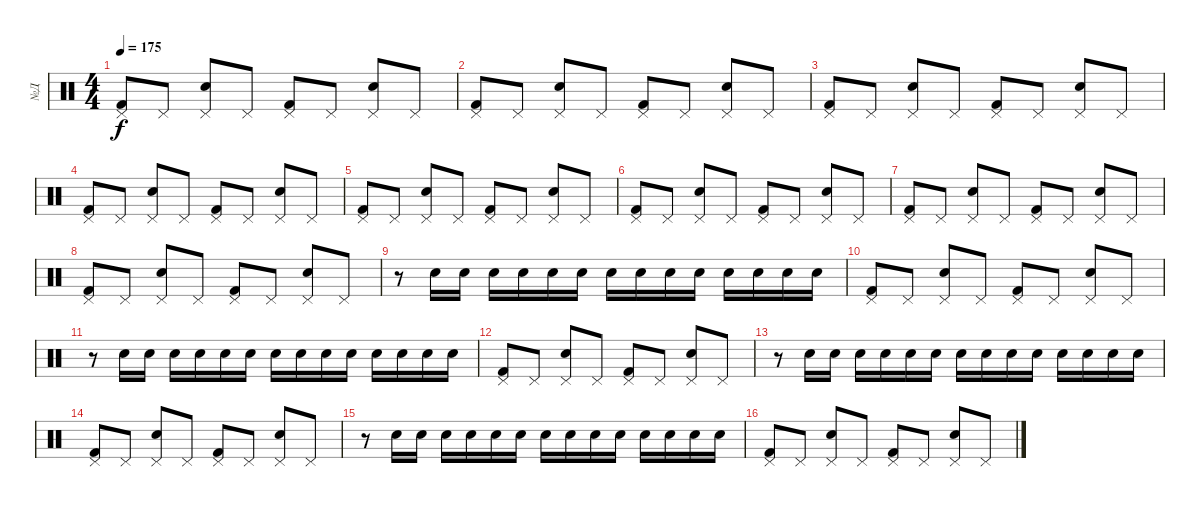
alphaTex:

\track ("№Д" "№Д") {instrument percussion}
\staff {score}
\articulation defaults
\ts (4 4)
\tempo 175
\clef neutral
\ks c
("Pedal Hi-Hat (hit)" "Kick (hit) 2").8{dy f} "Pedal Hi-Hat (hit)".8 ("Pedal Hi-Hat (hit)" "Electric Snare (hit)").8 "Pedal Hi-Hat (hit)".8 ("Pedal Hi-Hat (hit)" "Kick (hit) 2").8 "Pedal Hi-Hat (hit)".8 ("Pedal Hi-Hat (hit)" "Electric Snare (hit)").8 "Pedal Hi-Hat (hit)".8 |
("Pedal Hi-Hat (hit)" "Kick (hit) 2").8 "Pedal Hi-Hat (hit)".8 ("Pedal Hi-Hat (hit)" "Electric Snare (hit)").8 "Pedal Hi-Hat (hit)".8 ("Pedal Hi-Hat (hit)" "Kick (hit) 2").8 "Pedal Hi-Hat (hit)".8 ("Pedal Hi-Hat (hit)" "Electric Snare (hit)").8 "Pedal Hi-Hat (hit)".8 |
("Pedal Hi-Hat (hit)" "Kick (hit) 2").8 "Pedal Hi-Hat (hit)".8 ("Pedal Hi-Hat (hit)" "Electric Snare (hit)").8 "Pedal Hi-Hat (hit)".8 ("Pedal Hi-Hat (hit)" "Kick (hit) 2").8 "Pedal Hi-Hat (hit)".8 ("Pedal Hi-Hat (hit)" "Electric Snare (hit)").8 "Pedal Hi-Hat (hit)".8 |
("Pedal Hi-Hat (hit)" "Kick (hit) 2").8 "Pedal Hi-Hat (hit)".8 ("Pedal Hi-Hat (hit)" "Electric Snare (hit)").8 "Pedal Hi-Hat (hit)".8 ("Pedal Hi-Hat (hit)" "Kick (hit) 2").8 "Pedal Hi-Hat (hit)".8 ("Pedal Hi-Hat (hit)" "Electric Snare (hit)").8 "Pedal Hi-Hat (hit)".8 |
("Pedal Hi-Hat (hit)" "Kick (hit) 2").8 "Pedal Hi-Hat (hit)".8 ("Pedal Hi-Hat (hit)" "Electric Snare (hit)").8 "Pedal Hi-Hat (hit)".8 ("Pedal Hi-Hat (hit)" "Kick (hit) 2").8 "Pedal Hi-Hat (hit)".8 ("Pedal Hi-Hat (hit)" "Electric Snare (hit)").8 "Pedal Hi-Hat (hit)".8 |
("Pedal Hi-Hat (hit)" "Kick (hit) 2").8 "Pedal Hi-Hat (hit)".8 ("Pedal Hi-Hat (hit)" "Electric Snare (hit)").8 "Pedal Hi-Hat (hit)".8 ("Pedal Hi-Hat (hit)" "Kick (hit) 2").8 "Pedal Hi-Hat (hit)".8 ("Pedal Hi-Hat (hit)" "Electric Snare (hit)").8 "Pedal Hi-Hat (hit)".8 |
("Pedal Hi-Hat (hit)" "Kick (hit) 2").8 "Pedal Hi-Hat (hit)".8 ("Pedal Hi-Hat (hit)" "Electric Snare (hit)").8 "Pedal Hi-Hat (hit)".8 ("Pedal Hi-Hat (hit)" "Kick (hit) 2").8 "Pedal Hi-Hat (hit)".8 ("Pedal Hi-Hat (hit)" "Electric Snare (hit)").8 "Pedal Hi-Hat (hit)".8 |
("Pedal Hi-Hat (hit)" "Kick (hit) 2").8 "Pedal Hi-Hat (hit)".8 ("Pedal Hi-Hat (hit)" "Electric Snare (hit)").8 "Pedal Hi-Hat (hit)".8 ("Pedal Hi-Hat (hit)" "Kick (hit) 2").8 "Pedal Hi-Hat (hit)".8 ("Pedal Hi-Hat (hit)" "Electric Snare (hit)").8 "Pedal Hi-Hat (hit)".8 |
r.8 "Electric Snare (hit)".16 "Electric Snare (hit)".16 "Electric Snare (hit)".16 "Electric Snare (hit)".16 "Electric Snare (hit)".16 "Electric Snare (hit)".16 "Electric Snare (hit)".16 "Electric Snare (hit)".16 "Electric Snare (hit)".16 "Electric Snare (hit)".16 "Electric Snare (hit)".16 "Electric Snare (hit)".16 "Electric Snare (hit)".16 "Electric Snare (hit)".16 |
("Pedal Hi-Hat (hit)" "Kick (hit) 2").8 "Pedal Hi-Hat (hit)".8 ("Pedal Hi-Hat (hit)" "Electric Snare (hit)").8 "Pedal Hi-Hat (hit)".8 ("Pedal Hi-Hat (hit)" "Kick (hit) 2").8 "Pedal Hi-Hat (hit)".8 ("Pedal Hi-Hat (hit)" "Electric Snare (hit)").8 "Pedal Hi-Hat (hit)".8 |
r.8 "Electric Snare (hit)".16 "Electric Snare (hit)".16 "Electric Snare (hit)".16 "Electric Snare (hit)".16 "Electric Snare (hit)".16 "Electric Snare (hit)".16 "Electric Snare (hit)".16 "Electric Snare (hit)".16 "Electric Snare (hit)".16 "Electric Snare (hit)".16 "Electric Snare (hit)".16 "Electric Snare (hit)".16 "Electric Snare (hit)".16 "Electric Snare (hit)".16 |
("Pedal Hi-Hat (hit)" "Kick (hit) 2").8 "Pedal Hi-Hat (hit)".8 ("Pedal Hi-Hat (hit)" "Electric Snare (hit)").8 "Pedal Hi-Hat (hit)".8 ("Pedal Hi-Hat (hit)" "Kick (hit) 2").8 "Pedal Hi-Hat (hit)".8 ("Pedal Hi-Hat (hit)" "Electric Snare (hit)").8 "Pedal Hi-Hat (hit)".8 |
r.8 "Electric Snare (hit)".16 "Electric Snare (hit)".16 "Electric Snare (hit)".16 "Electric Snare (hit)".16 "Electric Snare (hit)".16 "Electric Snare (hit)".16 "Electric Snare (hit)".16 "Electric Snare (hit)".16 "Electric Snare (hit)".16 "Electric Snare (hit)".16 "Electric Snare (hit)".16 "Electric Snare (hit)".16 "Electric Snare (hit)".16 "Electric Snare (hit)".16 |
("Pedal Hi-Hat (hit)" "Kick (hit) 2").8 "Pedal Hi-Hat (hit)".8 ("Pedal Hi-Hat (hit)" "Electric Snare (hit)").8 "Pedal Hi-Hat (hit)".8 ("Pedal Hi-Hat (hit)" "Kick (hit) 2").8 "Pedal Hi-Hat (hit)".8 ("Pedal Hi-Hat (hit)" "Electric Snare (hit)").8 "Pedal Hi-Hat (hit)".8 |
r.8 "Electric Snare (hit)".16 "Electric Snare (hit)".16 "Electric Snare (hit)".16 "Electric Snare (hit)".16 "Electric Snare (hit)".16 "Electric Snare (hit)".16 "Electric Snare (hit)".16 "Electric Snare (hit)".16 "Electric Snare (hit)".16 "Electric Snare (hit)".16 "Electric Snare (hit)".16 "Electric Snare (hit)".16 "Electric Snare (hit)".16 "Electric Snare (hit)".16 |
("Pedal Hi-Hat (hit)" "Kick (hit) 2").8 "Pedal Hi-Hat (hit)".8 ("Pedal Hi-Hat (hit)" "Electric Snare (hit)").8 "Pedal Hi-Hat (hit)".8 ("Pedal Hi-Hat (hit)" "Kick (hit) 2").8 "Pedal Hi-Hat (hit)".8 ("Pedal Hi-Hat (hit)" "Electric Snare (hit)").8 "Pedal Hi-Hat (hit)".8
